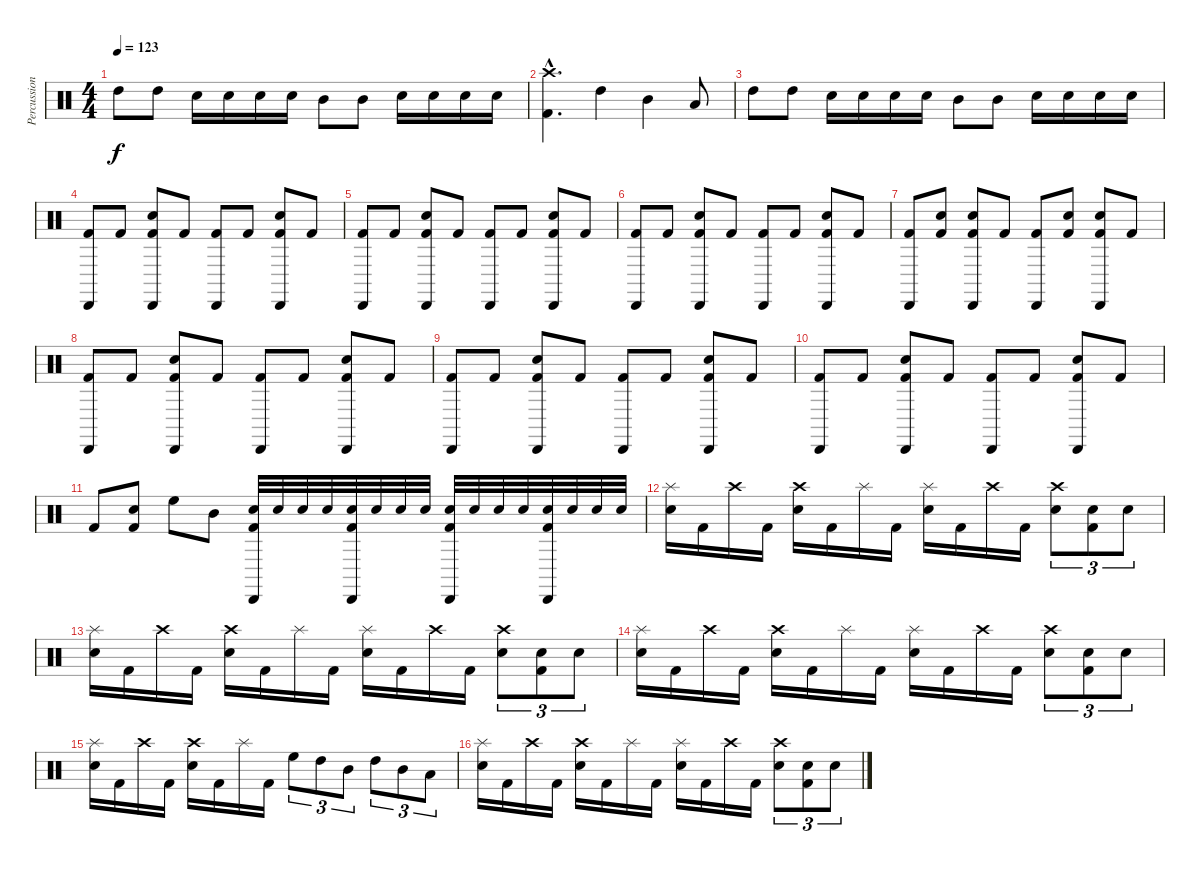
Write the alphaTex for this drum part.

\track ("Percussion" "Percussion") {instrument percussion}
\staff {score}
\articulation defaults
\ts (4 4)
\tempo 123
\clef neutral
\ks c "High Tom (hit)".8{dy f} "High Tom (hit)".8 "Electric Snare (hit)".16 "Electric Snare (hit)".16 "Electric Snare (hit)".16 "Electric Snare (hit)".16 "Mid Tom (hit)".8 "Mid Tom (hit)".8 "Electric Snare (hit)".16 "Electric Snare (hit)".16 "Electric Snare (hit)".16 "Electric Snare (hit)".16
|
("Crash high (hit)"{hac} "Kick (hit) 2"{hac}).4{d} "High Tom (hit)".4 "Mid Tom (hit)".4 "Low Tom (hit)".8 |
"High Tom (hit)".8 "High Tom (hit)".8 "Electric Snare (hit)".16 "Electric Snare (hit)".16 "Electric Snare (hit)".16 "Electric Snare (hit)".16 "Mid Tom (hit)".8 "Mid Tom (hit)".8 "Electric Snare (hit)".16 "Electric Snare (hit)".16 "Electric Snare (hit)".16 "Electric Snare (hit)".16 |
("Cabasa (hit)" "Kick (hit) 2").8 "Kick (hit) 2".8 ("Cabasa (hit)" "Electric Snare (hit)" "Kick (hit) 2").8 "Kick (hit) 2".8 ("Cabasa (hit)" "Kick (hit) 2").8 "Kick (hit) 2".8 ("Cabasa (hit)" "Electric Snare (hit)" "Kick (hit) 2").8 "Kick (hit) 2".8 |
("Cabasa (hit)" "Kick (hit) 2").8 "Kick (hit) 2".8 ("Cabasa (hit)" "Electric Snare (hit)" "Kick (hit) 2").8 "Kick (hit) 2".8 ("Cabasa (hit)" "Kick (hit) 2").8 "Kick (hit) 2".8 ("Cabasa (hit)" "Electric Snare (hit)" "Kick (hit) 2").8 "Kick (hit) 2".8 |
("Cabasa (hit)" "Kick (hit) 2").8 "Kick (hit) 2".8 ("Cabasa (hit)" "Electric Snare (hit)" "Kick (hit) 2").8 "Kick (hit) 2".8 ("Cabasa (hit)" "Kick (hit) 2").8 "Kick (hit) 2".8 ("Cabasa (hit)" "Electric Snare (hit)" "Kick (hit) 2").8 "Kick (hit) 2".8 |
("Cabasa (hit)" "Kick (hit) 2").8 ("Electric Snare (hit)" "Kick (hit) 2").8 ("Cabasa (hit)" "Electric Snare (hit)" "Kick (hit) 2").8 "Kick (hit) 2".8 ("Cabasa (hit)" "Kick (hit) 2").8 ("Electric Snare (hit)" "Kick (hit) 2").8 ("Cabasa (hit)" "Electric Snare (hit)" "Kick (hit) 2").8 "Kick (hit) 2".8 |
("Cabasa (hit)" "Kick (hit) 2").8 "Kick (hit) 2".8 ("Cabasa (hit)" "Electric Snare (hit)" "Kick (hit) 2").8 "Kick (hit) 2".8 ("Cabasa (hit)" "Kick (hit) 2").8 "Kick (hit) 2".8 ("Cabasa (hit)" "Electric Snare (hit)" "Kick (hit) 2").8 "Kick (hit) 2".8 |
("Cabasa (hit)" "Kick (hit) 2").8 "Kick (hit) 2".8 ("Cabasa (hit)" "Electric Snare (hit)" "Kick (hit) 2").8 "Kick (hit) 2".8 ("Cabasa (hit)" "Kick (hit) 2").8 "Kick (hit) 2".8 ("Cabasa (hit)" "Electric Snare (hit)" "Kick (hit) 2").8 "Kick (hit) 2".8 |
("Cabasa (hit)" "Kick (hit) 2").8 "Kick (hit) 2".8 ("Cabasa (hit)" "Electric Snare (hit)" "Kick (hit) 2").8 "Kick (hit) 2".8 ("Cabasa (hit)" "Kick (hit) 2").8 "Kick (hit) 2".8 ("Cabasa (hit)" "Electric Snare (hit)" "Kick (hit) 2").8 "Kick (hit) 2".8 |
"Kick (hit) 2".8 ("Electric Snare (hit)" "Kick (hit) 2").8 "High Floor Tom (hit)".8 "Mid Tom (hit)".8 ("Cabasa (hit)" "Electric Snare (hit)" "Kick (hit) 2").32 "Electric Snare (hit)".32 "Electric Snare (hit)".32 "Electric Snare (hit)".32 ("Cabasa (hit)" "Electric Snare (hit)" "Kick (hit) 2").32 "Electric Snare (hit)".32 "Electric Snare (hit)".32 "Electric Snare (hit)".32 ("Cabasa (hit)" "Electric Snare (hit)" "Kick (hit) 2").32 "Electric Snare (hit)".32 "Electric Snare (hit)".32 "Electric Snare (hit)".32 ("Cabasa (hit)" "Electric Snare (hit)" "Kick (hit) 2").32 "Electric Snare (hit)".32 "Electric Snare (hit)".32 "Electric Snare (hit)".32 |
("Splash (hit)" "Electric Snare (hit)").16 "Kick (hit) 2".16 "Crash high (hit)".16 "Kick (hit) 2".16 ("Crash high (hit)" "Electric Snare (hit)").16 "Kick (hit) 2".16 "Splash (hit)".16 "Kick (hit) 2".16 ("Splash (hit)" "Electric Snare (hit)").16 "Kick (hit) 2".16 "Crash high (hit)".16 "Kick (hit) 2".16 ("Crash high (hit)" "Electric Snare (hit)").8{tu (3 2)} ("Electric Snare (hit)" "Kick (hit) 2").8{tu (3 2)} "Electric Snare (hit)".8{tu (3 2)} |
("Splash (hit)" "Electric Snare (hit)").16 "Kick (hit) 2".16 "Crash high (hit)".16 "Kick (hit) 2".16 ("Crash high (hit)" "Electric Snare (hit)").16 "Kick (hit) 2".16 "Splash (hit)".16 "Kick (hit) 2".16 ("Splash (hit)" "Electric Snare (hit)").16 "Kick (hit) 2".16 "Crash high (hit)".16 "Kick (hit) 2".16 ("Crash high (hit)" "Electric Snare (hit)").8{tu (3 2)} ("Electric Snare (hit)" "Kick (hit) 2").8{tu (3 2)} "Electric Snare (hit)".8{tu (3 2)} |
("Splash (hit)" "Electric Snare (hit)").16 "Kick (hit) 2".16 "Crash high (hit)".16 "Kick (hit) 2".16 ("Crash high (hit)" "Electric Snare (hit)").16 "Kick (hit) 2".16 "Splash (hit)".16 "Kick (hit) 2".16 ("Splash (hit)" "Electric Snare (hit)").16 "Kick (hit) 2".16 "Crash high (hit)".16 "Kick (hit) 2".16 ("Crash high (hit)" "Electric Snare (hit)").8{tu (3 2)} ("Electric Snare (hit)" "Kick (hit) 2").8{tu (3 2)} "Electric Snare (hit)".8{tu (3 2)} |
("Splash (hit)" "Electric Snare (hit)").16 "Kick (hit) 2".16 "Crash high (hit)".16 "Kick (hit) 2".16 ("Crash high (hit)" "Electric Snare (hit)").16 "Kick (hit) 2".16 "Splash (hit)".16 "Kick (hit) 2".16 "High Floor Tom (hit)".8{tu (3 2)} "High Tom (hit)".8{tu (3 2)} "Mid Tom (hit)".8{tu (3 2)} "High Tom (hit)".8{tu (3 2)} "Mid Tom (hit)".8{tu (3 2)} "Low Tom (hit)".8{tu (3 2)} |
("Splash (hit)" "Electric Snare (hit)").16 "Kick (hit) 2".16 "Crash high (hit)".16 "Kick (hit) 2".16 ("Crash high (hit)" "Electric Snare (hit)").16 "Kick (hit) 2".16 "Splash (hit)".16 "Kick (hit) 2".16 ("Splash (hit)" "Electric Snare (hit)").16 "Kick (hit) 2".16 "Crash high (hit)".16 "Kick (hit) 2".16 ("Crash high (hit)" "Electric Snare (hit)").8{tu (3 2)} ("Electric Snare (hit)" "Kick (hit) 2").8{tu (3 2)} "Electric Snare (hit)".8{tu (3 2)}
